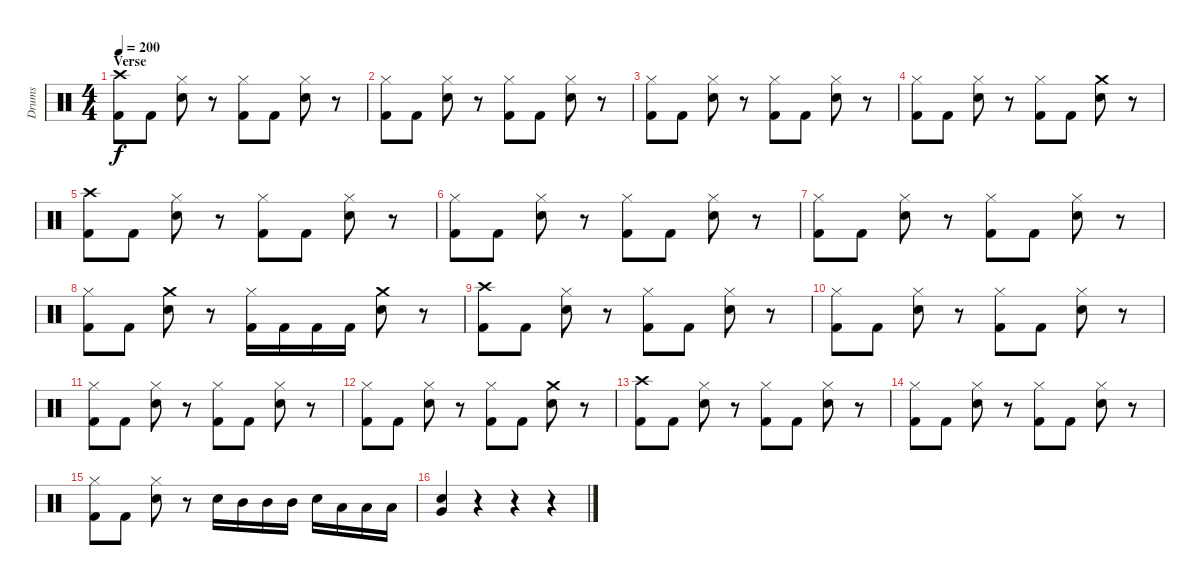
\track ("Drums" "Drums") {instrument percussion}
\staff {score}
\articulation defaults
\ts (4 4)
\section ("" "Verse")
\tempo 200
\clef neutral
\ks c
("Crash high (hit)" "Kick (hit) 2").8{dy f} "Kick (hit) 2".8 ("Hi-Hat (closed)" "Electric Snare (hit)").8 r.8 ("Hi-Hat (closed)" "Kick (hit) 2").8 "Kick (hit) 2".8 ("Hi-Hat (closed)" "Electric Snare (hit)").8 r.8 |
("Hi-Hat (closed)" "Kick (hit) 2").8 "Kick (hit) 2".8 ("Hi-Hat (closed)" "Electric Snare (hit)").8 r.8 ("Hi-Hat (closed)" "Kick (hit) 2").8 "Kick (hit) 2".8 ("Hi-Hat (closed)" "Electric Snare (hit)").8 r.8 |
("Hi-Hat (closed)" "Kick (hit) 2").8 "Kick (hit) 2".8 ("Hi-Hat (closed)" "Electric Snare (hit)").8 r.8 ("Hi-Hat (closed)" "Kick (hit) 2").8 "Kick (hit) 2".8 ("Hi-Hat (closed)" "Electric Snare (hit)").8 r.8 |
("Hi-Hat (closed)" "Kick (hit) 2").8 "Kick (hit) 2".8 ("Hi-Hat (closed)" "Electric Snare (hit)").8 r.8 ("Hi-Hat (closed)" "Kick (hit) 2").8 "Kick (hit) 2".8 ("Crash medium (hit)" "Electric Snare (hit)").8 r.8 |
("Crash high (hit)" "Kick (hit) 2").8 "Kick (hit) 2".8 ("Hi-Hat (closed)" "Electric Snare (hit)").8 r.8 ("Hi-Hat (closed)" "Kick (hit) 2").8 "Kick (hit) 2".8 ("Hi-Hat (closed)" "Electric Snare (hit)").8 r.8 |
("Hi-Hat (closed)" "Kick (hit) 2").8 "Kick (hit) 2".8 ("Hi-Hat (closed)" "Electric Snare (hit)").8 r.8 ("Hi-Hat (closed)" "Kick (hit) 2").8 "Kick (hit) 2".8 ("Hi-Hat (closed)" "Electric Snare (hit)").8 r.8 |
("Hi-Hat (closed)" "Kick (hit) 2").8 "Kick (hit) 2".8 ("Hi-Hat (closed)" "Electric Snare (hit)").8 r.8 ("Hi-Hat (closed)" "Kick (hit) 2").8 "Kick (hit) 2".8 ("Hi-Hat (closed)" "Electric Snare (hit)").8 r.8 |
("Hi-Hat (closed)" "Kick (hit) 2").8 "Kick (hit) 2".8 ("Crash medium (hit)" "Electric Snare (hit)").8 r.8 ("Hi-Hat (closed)" "Kick (hit) 2").16 "Kick (hit) 2".16 "Kick (hit) 2".16 "Kick (hit) 2".16 ("Crash medium (hit)" "Electric Snare (hit)").8 r.8 |
("Crash high (hit)" "Kick (hit) 2").8 "Kick (hit) 2".8 ("Hi-Hat (closed)" "Electric Snare (hit)").8 r.8 ("Hi-Hat (closed)" "Kick (hit) 2").8 "Kick (hit) 2".8 ("Hi-Hat (closed)" "Electric Snare (hit)").8 r.8 |
("Hi-Hat (closed)" "Kick (hit) 2").8 "Kick (hit) 2".8 ("Hi-Hat (closed)" "Electric Snare (hit)").8 r.8 ("Hi-Hat (closed)" "Kick (hit) 2").8 "Kick (hit) 2".8 ("Hi-Hat (closed)" "Electric Snare (hit)").8 r.8 |
("Hi-Hat (closed)" "Kick (hit) 2").8 "Kick (hit) 2".8 ("Hi-Hat (closed)" "Electric Snare (hit)").8 r.8 ("Hi-Hat (closed)" "Kick (hit) 2").8 "Kick (hit) 2".8 ("Hi-Hat (closed)" "Electric Snare (hit)").8 r.8 |
("Hi-Hat (closed)" "Kick (hit) 2").8 "Kick (hit) 2".8 ("Hi-Hat (closed)" "Electric Snare (hit)").8 r.8 ("Hi-Hat (closed)" "Kick (hit) 2").8 "Kick (hit) 2".8 ("Crash medium (hit)" "Electric Snare (hit)").8 r.8 |
("Crash high (hit)" "Kick (hit) 2").8 "Kick (hit) 2".8 ("Hi-Hat (closed)" "Electric Snare (hit)").8 r.8 ("Hi-Hat (closed)" "Kick (hit) 2").8 "Kick (hit) 2".8 ("Hi-Hat (closed)" "Electric Snare (hit)").8 r.8 |
("Hi-Hat (closed)" "Kick (hit) 2").8 "Kick (hit) 2".8 ("Hi-Hat (closed)" "Electric Snare (hit)").8 r.8 ("Hi-Hat (closed)" "Kick (hit) 2").8 "Kick (hit) 2".8 ("Hi-Hat (closed)" "Electric Snare (hit)").8 r.8 |
("Hi-Hat (closed)" "Kick (hit) 2").8 "Kick (hit) 2".8 ("Hi-Hat (closed)" "Electric Snare (hit)").8 r.8 "Electric Snare (hit)".16 "Mid Tom (hit)".16 "Mid Tom (hit)".16 "Mid Tom (hit)".16 "Electric Snare (hit)".16 "Low Tom (hit)".16 "Low Tom (hit)".16 "Low Tom (hit)".16 |
("Very Low Tom (hit)" "Electric Snare (hit)").4 r.4 r.4 r.4
